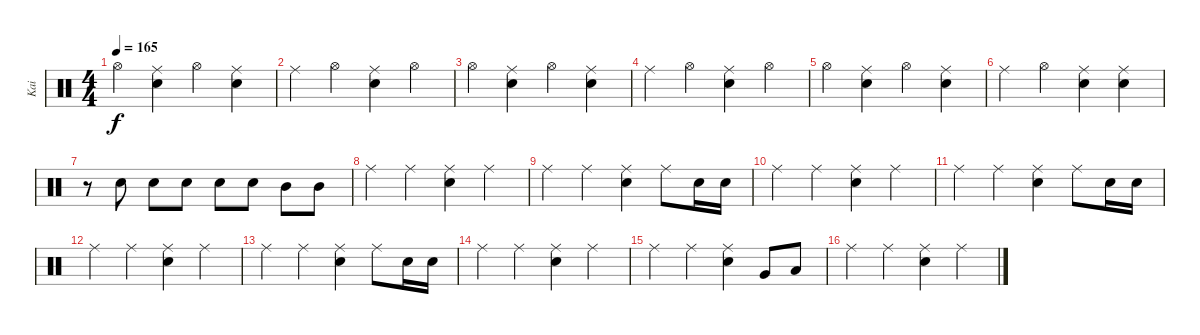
\track ("Kai" "Kai") {instrument percussion}
\staff {score}
\articulation defaults
\ts (4 4)
\tempo 165
\clef neutral
\ks c "Hi-Hat (open)".4{dy f}
("Ride (middle)" "Snare (hit) 2").4 "Hi-Hat (open)".4 ("Ride (middle)" "Snare (hit) 2").4 |
"Ride (middle)".4 "Hi-Hat (open)".4 ("Ride (middle)" "Snare (hit) 2").4 "Hi-Hat (open)".4 |
"Hi-Hat (open)".4 ("Ride (middle)" "Snare (hit) 2").4 "Hi-Hat (open)".4 ("Ride (middle)" "Snare (hit) 2").4 |
"Ride (middle)".4 "Hi-Hat (open)".4 ("Ride (middle)" "Snare (hit) 2").4 "Hi-Hat (open)".4 |
"Hi-Hat (open)".4 ("Ride (middle)" "Snare (hit) 2").4 "Hi-Hat (open)".4 ("Ride (middle)" "Snare (hit) 2").4 |
"Ride (middle)".4 "Hi-Hat (open)".4 ("Ride (middle)" "Snare (hit) 2").4 ("Ride (middle)" "Snare (hit) 2").4 |
r.8 "Snare (hit) 2".8 "Snare (hit) 2".8 "Snare (hit) 2".8 "Snare (hit) 2".8 "Snare (hit) 2".8 "Mid Tom (hit)".8 "Mid Tom (hit)".8 |
"Ride (middle)".4 "Ride (middle)".4 ("Ride (middle)" "Snare (hit) 2").4 "Ride (middle)".4 |
"Ride (middle)".4 "Ride (middle)".4 ("Ride (middle)" "Snare (hit) 2").4 "Ride (middle)".8 "Snare (hit) 2".16 "Snare (hit) 2".16 |
"Ride (middle)".4 "Ride (middle)".4 ("Ride (middle)" "Snare (hit) 2").4 "Ride (middle)".4 |
"Ride (middle)".4 "Ride (middle)".4 ("Ride (middle)" "Snare (hit) 2").4 "Ride (middle)".8 "Snare (hit) 2".16 "Snare (hit) 2".16 |
"Ride (middle)".4 "Ride (middle)".4 ("Ride (middle)" "Snare (hit) 2").4 "Ride (middle)".4 |
"Ride (middle)".4 "Ride (middle)".4 ("Ride (middle)" "Snare (hit) 2").4 "Ride (middle)".8 "Snare (hit) 2".16 "Snare (hit) 2".16 |
"Ride (middle)".4 "Ride (middle)".4 ("Ride (middle)" "Snare (hit) 2").4 "Ride (middle)".4 |
"Ride (middle)".4 "Ride (middle)".4 ("Ride (middle)" "Snare (hit) 2").4 "Very Low Tom (hit)".8 "Low Tom (hit)".8 |
"Ride (middle)".4 "Ride (middle)".4 ("Ride (middle)" "Snare (hit) 2").4 "Ride (middle)".4
